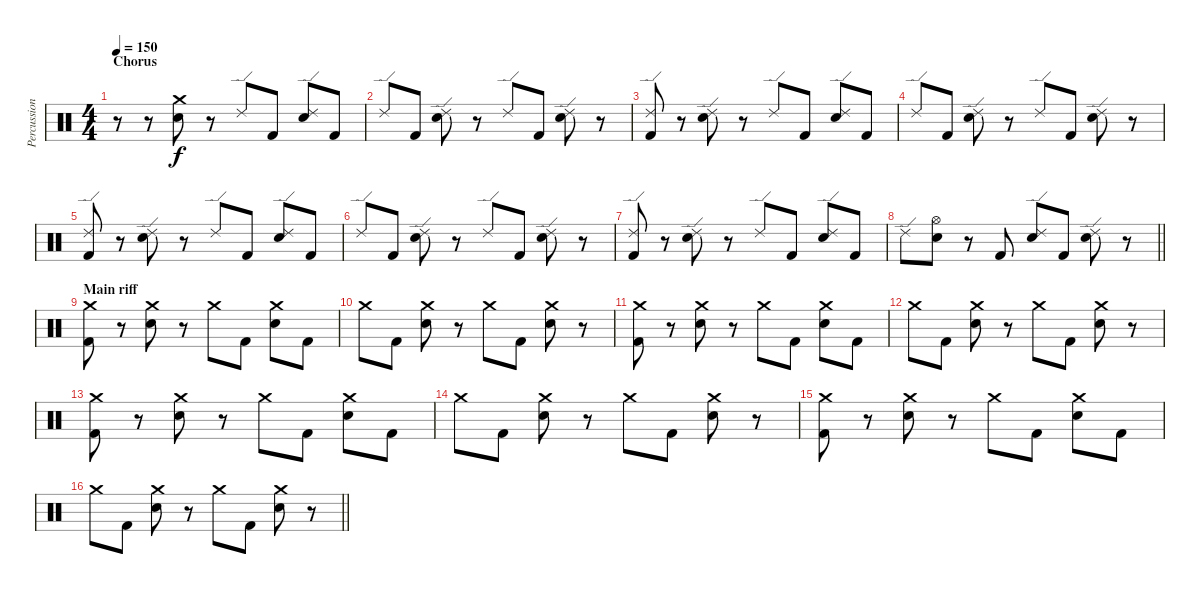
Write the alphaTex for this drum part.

\track ("Percussion" "Percussion") {instrument percussion}
\staff {score}
\articulation defaults
\ts (4 4)
\section ("" "Chorus")
\tempo 150
\clef neutral
\ks c
r.8{dy f} r.8 ("Crash medium (hit)" "Electric Snare (hit)").8 r.8 "Ride (edge) 2".8 "Kick (hit) 2".8 ("Ride (edge) 2" "Electric Snare (hit)").8 "Kick (hit) 2".8 |
"Ride (edge) 2".8 "Kick (hit) 2".8 ("Ride (edge) 2" "Electric Snare (hit)").8 r.8 "Ride (edge) 2".8 "Kick (hit) 2".8 ("Ride (edge) 2" "Electric Snare (hit)").8 r.8 |
("Ride (edge) 2" "Kick (hit) 2").8 r.8 ("Ride (edge) 2" "Electric Snare (hit)").8 r.8 "Ride (edge) 2".8 "Kick (hit) 2".8 ("Ride (edge) 2" "Electric Snare (hit)").8 "Kick (hit) 2".8 |
"Ride (edge) 2".8 "Kick (hit) 2".8 ("Ride (edge) 2" "Electric Snare (hit)").8 r.8 "Ride (edge) 2".8 "Kick (hit) 2".8 ("Ride (edge) 2" "Electric Snare (hit)").8 r.8 |
("Ride (edge) 2" "Kick (hit) 2").8 r.8 ("Ride (edge) 2" "Electric Snare (hit)").8 r.8 "Ride (edge) 2".8 "Kick (hit) 2".8 ("Ride (edge) 2" "Electric Snare (hit)").8 "Kick (hit) 2".8 |
"Ride (edge) 2".8 "Kick (hit) 2".8 ("Ride (edge) 2" "Electric Snare (hit)").8 r.8 "Ride (edge) 2".8 "Kick (hit) 2".8 ("Ride (edge) 2" "Electric Snare (hit)").8 r.8 |
("Ride (edge) 2" "Kick (hit) 2").8 r.8 ("Ride (edge) 2" "Electric Snare (hit)").8 r.8 "Ride (edge) 2".8 "Kick (hit) 2".8 ("Ride (edge) 2" "Electric Snare (hit)").8 "Kick (hit) 2".8 |
\barLineRight lightlight "Ride (edge) 2".8
("Hi-Hat (open)" "Electric Snare (hit)").8 r.8 "Kick (hit) 2".8 ("Ride (edge) 2" "Electric Snare (hit)").8 "Kick (hit) 2".8 ("Ride (edge) 2" "Electric Snare (hit)").8 r.8 |
\section ("" "Main riff")
("Crash medium (hit)" "Kick (hit) 2").8 r.8 ("Crash medium (hit)" "Electric Snare (hit)").8 r.8 "Crash medium (hit)".8 "Kick (hit) 2".8 ("Crash medium (hit)" "Electric Snare (hit)").8 "Kick (hit) 2".8 |
"Crash medium (hit)".8 "Kick (hit) 2".8 ("Crash medium (hit)" "Electric Snare (hit)").8 r.8 "Crash medium (hit)".8 "Kick (hit) 2".8 ("Crash medium (hit)" "Electric Snare (hit)").8 r.8 |
("Crash medium (hit)" "Kick (hit) 2").8 r.8 ("Crash medium (hit)" "Electric Snare (hit)").8 r.8 "Crash medium (hit)".8 "Kick (hit) 2".8 ("Crash medium (hit)" "Electric Snare (hit)").8 "Kick (hit) 2".8 |
"Crash medium (hit)".8 "Kick (hit) 2".8 ("Crash medium (hit)" "Electric Snare (hit)").8 r.8 "Crash medium (hit)".8 "Kick (hit) 2".8 ("Crash medium (hit)" "Electric Snare (hit)").8 r.8 |
("Crash medium (hit)" "Kick (hit) 2").8 r.8 ("Crash medium (hit)" "Electric Snare (hit)").8 r.8 "Crash medium (hit)".8 "Kick (hit) 2".8 ("Crash medium (hit)" "Electric Snare (hit)").8 "Kick (hit) 2".8 |
"Crash medium (hit)".8 "Kick (hit) 2".8 ("Crash medium (hit)" "Electric Snare (hit)").8 r.8 "Crash medium (hit)".8 "Kick (hit) 2".8 ("Crash medium (hit)" "Electric Snare (hit)").8 r.8 |
("Crash medium (hit)" "Kick (hit) 2").8 r.8 ("Crash medium (hit)" "Electric Snare (hit)").8 r.8 "Crash medium (hit)".8 "Kick (hit) 2".8 ("Crash medium (hit)" "Electric Snare (hit)").8 "Kick (hit) 2".8 |
\barLineRight lightlight "Crash medium (hit)".8 "Kick (hit) 2".8
("Crash medium (hit)" "Electric Snare (hit)").8 r.8 "Crash medium (hit)".8 "Kick (hit) 2".8 ("Crash medium (hit)" "Electric Snare (hit)").8 r.8
